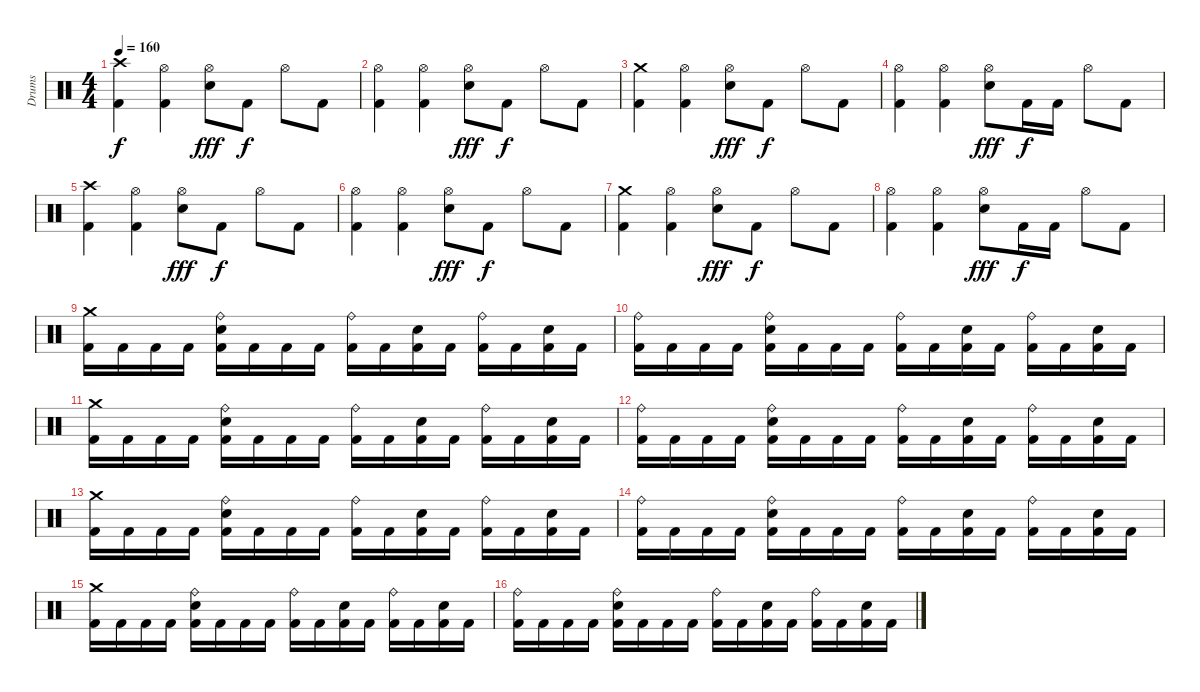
\track ("Drums" "Drums") {instrument percussion}
\staff {score}
\articulation defaults
\ts (4 4)
\tempo 160
\clef neutral
\ks c
("Crash high (hit)" "Kick (hit) 2").4{dy f} ("Hi-Hat (open)" "Kick (hit) 2").4 ("Hi-Hat (open)" "Snare (hit) 2").8{dy fff} "Kick (hit) 2".8{dy f} "Hi-Hat (open)".8 "Kick (hit) 2".8 |
("Hi-Hat (open)" "Kick (hit) 2").4 ("Hi-Hat (open)" "Kick (hit) 2").4 ("Hi-Hat (open)" "Snare (hit) 2").8{dy fff} "Kick (hit) 2".8{dy f} "Hi-Hat (open)".8 "Kick (hit) 2".8 |
("Crash medium (hit)" "Kick (hit) 2").4 ("Hi-Hat (open)" "Kick (hit) 2").4 ("Hi-Hat (open)" "Snare (hit) 2").8{dy fff} "Kick (hit) 2".8{dy f} "Hi-Hat (open)".8 "Kick (hit) 2".8 |
("Hi-Hat (open)" "Kick (hit) 2").4 ("Hi-Hat (open)" "Kick (hit) 2").4 ("Hi-Hat (open)" "Snare (hit) 2").8{dy fff} "Kick (hit) 2".16{dy f} "Kick (hit) 2".16 "Hi-Hat (open)".8 "Kick (hit) 2".8 |
("Crash high (hit)" "Kick (hit) 2").4 ("Hi-Hat (open)" "Kick (hit) 2").4 ("Hi-Hat (open)" "Snare (hit) 2").8{dy fff} "Kick (hit) 2".8{dy f} "Hi-Hat (open)".8 "Kick (hit) 2".8 |
("Hi-Hat (open)" "Kick (hit) 2").4 ("Hi-Hat (open)" "Kick (hit) 2").4 ("Hi-Hat (open)" "Snare (hit) 2").8{dy fff} "Kick (hit) 2".8{dy f} "Hi-Hat (open)".8 "Kick (hit) 2".8 |
("Crash medium (hit)" "Kick (hit) 2").4 ("Hi-Hat (open)" "Kick (hit) 2").4 ("Hi-Hat (open)" "Snare (hit) 2").8{dy fff} "Kick (hit) 2".8{dy f} "Hi-Hat (open)".8 "Kick (hit) 2".8 |
("Hi-Hat (open)" "Kick (hit) 2").4 ("Hi-Hat (open)" "Kick (hit) 2").4 ("Hi-Hat (open)" "Snare (hit) 2").8{dy fff} "Kick (hit) 2".16{dy f} "Kick (hit) 2".16 "Hi-Hat (open)".8 "Kick (hit) 2".8 |
("Crash medium (hit)" "Kick (hit) 2").16 "Kick (hit) 2".16 "Kick (hit) 2".16 "Kick (hit) 2".16 ("Ride (bell)" "Snare (hit) 2" "Kick (hit) 2").16 "Kick (hit) 2".16 "Kick (hit) 2".16 "Kick (hit) 2".16 ("Ride (bell)" "Kick (hit) 2").16 "Kick (hit) 2".16 ("Snare (hit) 2" "Kick (hit) 2").16 "Kick (hit) 2".16 ("Ride (bell)" "Kick (hit) 2").16 "Kick (hit) 2".16 ("Snare (hit) 2" "Kick (hit) 2").16 "Kick (hit) 2".16 |
("Ride (bell)" "Kick (hit) 2").16 "Kick (hit) 2".16 "Kick (hit) 2".16 "Kick (hit) 2".16 ("Ride (bell)" "Snare (hit) 2" "Kick (hit) 2").16 "Kick (hit) 2".16 "Kick (hit) 2".16 "Kick (hit) 2".16 ("Ride (bell)" "Kick (hit) 2").16 "Kick (hit) 2".16 ("Snare (hit) 2" "Kick (hit) 2").16 "Kick (hit) 2".16 ("Ride (bell)" "Kick (hit) 2").16 "Kick (hit) 2".16 ("Snare (hit) 2" "Kick (hit) 2").16 "Kick (hit) 2".16 |
("Crash medium (hit)" "Kick (hit) 2").16 "Kick (hit) 2".16 "Kick (hit) 2".16 "Kick (hit) 2".16 ("Ride (bell)" "Snare (hit) 2" "Kick (hit) 2").16 "Kick (hit) 2".16 "Kick (hit) 2".16 "Kick (hit) 2".16 ("Ride (bell)" "Kick (hit) 2").16 "Kick (hit) 2".16 ("Snare (hit) 2" "Kick (hit) 2").16 "Kick (hit) 2".16 ("Ride (bell)" "Kick (hit) 2").16 "Kick (hit) 2".16 ("Snare (hit) 2" "Kick (hit) 2").16 "Kick (hit) 2".16 |
("Ride (bell)" "Kick (hit) 2").16 "Kick (hit) 2".16 "Kick (hit) 2".16 "Kick (hit) 2".16 ("Ride (bell)" "Snare (hit) 2" "Kick (hit) 2").16 "Kick (hit) 2".16 "Kick (hit) 2".16 "Kick (hit) 2".16 ("Ride (bell)" "Kick (hit) 2").16 "Kick (hit) 2".16 ("Snare (hit) 2" "Kick (hit) 2").16 "Kick (hit) 2".16 ("Ride (bell)" "Kick (hit) 2").16 "Kick (hit) 2".16 ("Snare (hit) 2" "Kick (hit) 2").16 "Kick (hit) 2".16 |
("Crash medium (hit)" "Kick (hit) 2").16 "Kick (hit) 2".16 "Kick (hit) 2".16 "Kick (hit) 2".16 ("Ride (bell)" "Snare (hit) 2" "Kick (hit) 2").16 "Kick (hit) 2".16 "Kick (hit) 2".16 "Kick (hit) 2".16 ("Ride (bell)" "Kick (hit) 2").16 "Kick (hit) 2".16 ("Snare (hit) 2" "Kick (hit) 2").16 "Kick (hit) 2".16 ("Ride (bell)" "Kick (hit) 2").16 "Kick (hit) 2".16 ("Snare (hit) 2" "Kick (hit) 2").16 "Kick (hit) 2".16 |
("Ride (bell)" "Kick (hit) 2").16 "Kick (hit) 2".16 "Kick (hit) 2".16 "Kick (hit) 2".16 ("Ride (bell)" "Snare (hit) 2" "Kick (hit) 2").16 "Kick (hit) 2".16 "Kick (hit) 2".16 "Kick (hit) 2".16 ("Ride (bell)" "Kick (hit) 2").16 "Kick (hit) 2".16 ("Snare (hit) 2" "Kick (hit) 2").16 "Kick (hit) 2".16 ("Ride (bell)" "Kick (hit) 2").16 "Kick (hit) 2".16 ("Snare (hit) 2" "Kick (hit) 2").16 "Kick (hit) 2".16 |
("Crash medium (hit)" "Kick (hit) 2").16 "Kick (hit) 2".16 "Kick (hit) 2".16 "Kick (hit) 2".16 ("Ride (bell)" "Snare (hit) 2" "Kick (hit) 2").16 "Kick (hit) 2".16 "Kick (hit) 2".16 "Kick (hit) 2".16 ("Ride (bell)" "Kick (hit) 2").16 "Kick (hit) 2".16 ("Snare (hit) 2" "Kick (hit) 2").16 "Kick (hit) 2".16 ("Ride (bell)" "Kick (hit) 2").16 "Kick (hit) 2".16 ("Snare (hit) 2" "Kick (hit) 2").16 "Kick (hit) 2".16 |
("Ride (bell)" "Kick (hit) 2").16 "Kick (hit) 2".16 "Kick (hit) 2".16 "Kick (hit) 2".16 ("Ride (bell)" "Snare (hit) 2" "Kick (hit) 2").16 "Kick (hit) 2".16 "Kick (hit) 2".16 "Kick (hit) 2".16 ("Ride (bell)" "Kick (hit) 2").16 "Kick (hit) 2".16 ("Snare (hit) 2" "Kick (hit) 2").16 "Kick (hit) 2".16 ("Ride (bell)" "Kick (hit) 2").16 "Kick (hit) 2".16 ("Snare (hit) 2" "Kick (hit) 2").16 "Kick (hit) 2".16
